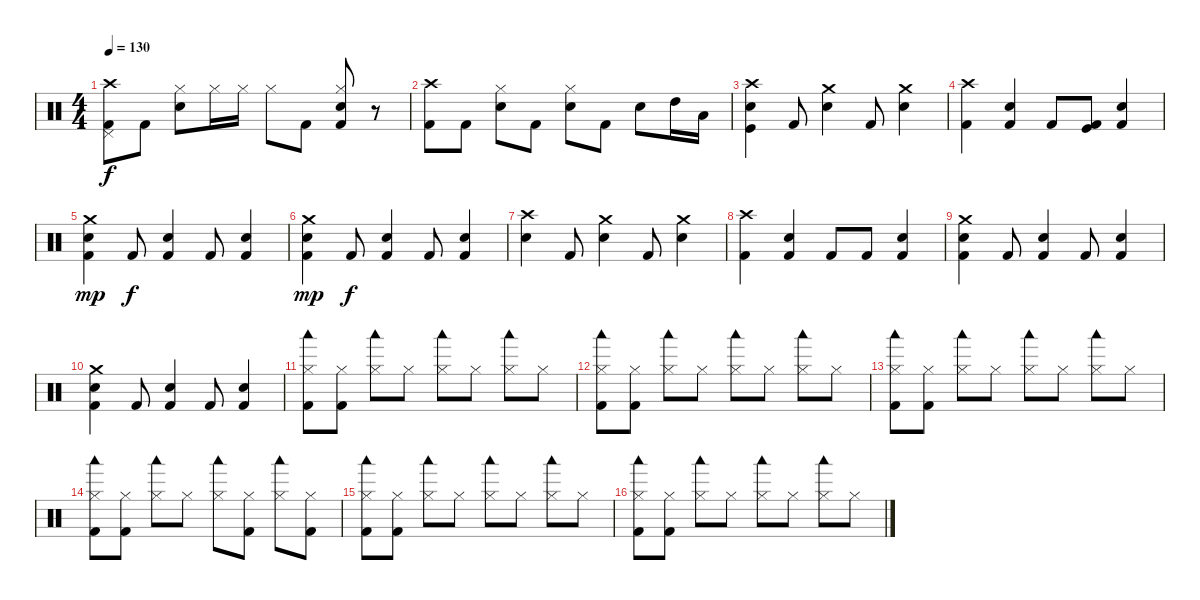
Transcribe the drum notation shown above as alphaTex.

\track "" {instrument percussion}
\staff {score}
\articulation defaults
\ts (4 4)
\tempo 130
\clef neutral
\ks c
("Crash high (hit)" "Pedal Hi-Hat (hit)" "Kick (hit) 2").8{dy f} "Kick (hit) 2".8 ("Hi-Hat (closed)" "Electric Snare (hit)").8 "Hi-Hat (closed)".16 "Hi-Hat (closed)".16 "Hi-Hat (closed)".8 "Kick (hit) 2".8 ("Hi-Hat (closed)" "Electric Snare (hit)" "Kick (hit) 2").8 r.8 |
("Crash high (hit)" "Kick (hit) 2").8 "Kick (hit) 2".8 ("Hi-Hat (closed)" "Electric Snare (hit)").8 "Kick (hit) 2".8 ("Hi-Hat (closed)" "Electric Snare (hit)").8 "Kick (hit) 2".8 "Electric Snare (hit)".8 "High Tom (hit)".16 "Low Tom (hit)".16 |
("Crash high (hit)" "Kick (hit)" "Electric Snare (hit)").4 "Kick (hit) 2".8 ("Crash medium (hit)" "Electric Snare (hit)").4 "Kick (hit) 2".8 ("Crash medium (hit)" "Electric Snare (hit)").4 |
("Crash high (hit)" "Kick (hit) 2").4 ("Kick (hit) 2" "Electric Snare (hit)").4 "Kick (hit) 2".8 ("Kick (hit)" "Kick (hit) 2").8 ("Kick (hit) 2" "Electric Snare (hit)").4 |
("Crash medium (hit)" "Kick (hit) 2" "Electric Snare (hit)").4{dy mp} "Kick (hit) 2".8{dy f} ("Kick (hit) 2" "Electric Snare (hit)").4 "Kick (hit) 2".8 ("Kick (hit) 2" "Electric Snare (hit)").4 |
("Crash medium (hit)" "Kick (hit) 2" "Electric Snare (hit)").4{dy mp} "Kick (hit) 2".8{dy f} ("Kick (hit) 2" "Electric Snare (hit)").4 "Kick (hit) 2".8 ("Kick (hit) 2" "Electric Snare (hit)").4 |
("Crash high (hit)" "Electric Snare (hit)").4 "Kick (hit) 2".8 ("Crash medium (hit)" "Electric Snare (hit)").4 "Kick (hit) 2".8 ("Crash medium (hit)" "Electric Snare (hit)").4 |
("Crash high (hit)" "Kick (hit) 2").4 ("Kick (hit) 2" "Electric Snare (hit)").4 "Kick (hit) 2".8 "Kick (hit) 2".8 ("Kick (hit) 2" "Electric Snare (hit)").4 |
("Kick (hit) 2" "Electric Snare (hit)" "Crash medium (hit)").4 "Kick (hit) 2".8 ("Kick (hit) 2" "Electric Snare (hit)").4 "Kick (hit) 2".8 ("Kick (hit) 2" "Electric Snare (hit)").4 |
("Crash medium (hit)" "Kick (hit) 2" "Electric Snare (hit)").4 "Kick (hit) 2".8 ("Kick (hit) 2" "Electric Snare (hit)").4 "Kick (hit) 2".8 ("Kick (hit) 2" "Electric Snare (hit)").4 |
("Woodblock low (hit)" "Hi-Hat (closed)" "Kick (hit) 2").8 ("Hi-Hat (closed)" "Kick (hit) 2").8 ("Woodblock low (hit)" "Hi-Hat (closed)").8 "Hi-Hat (closed)".8 ("Woodblock low (hit)" "Hi-Hat (closed)").8 "Hi-Hat (closed)".8 ("Woodblock low (hit)" "Hi-Hat (closed)").8 "Hi-Hat (closed)".8 |
("Woodblock low (hit)" "Hi-Hat (closed)" "Kick (hit) 2").8 ("Hi-Hat (closed)" "Kick (hit) 2").8 ("Woodblock low (hit)" "Hi-Hat (closed)").8 "Hi-Hat (closed)".8 ("Woodblock low (hit)" "Hi-Hat (closed)").8 "Hi-Hat (closed)".8 ("Woodblock low (hit)" "Hi-Hat (closed)").8 "Hi-Hat (closed)".8 |
("Woodblock low (hit)" "Hi-Hat (closed)" "Kick (hit) 2").8 ("Hi-Hat (closed)" "Kick (hit) 2").8 ("Woodblock low (hit)" "Hi-Hat (closed)").8 "Hi-Hat (closed)".8 ("Woodblock low (hit)" "Hi-Hat (closed)").8 "Hi-Hat (closed)".8 ("Woodblock low (hit)" "Hi-Hat (closed)").8 "Hi-Hat (closed)".8 |
("Woodblock low (hit)" "Hi-Hat (closed)" "Kick (hit) 2").8 ("Hi-Hat (closed)" "Kick (hit) 2").8 ("Woodblock low (hit)" "Hi-Hat (closed)").8 "Hi-Hat (closed)".8 ("Woodblock low (hit)" "Hi-Hat (closed)").8 ("Hi-Hat (closed)" "Kick (hit) 2").8 ("Woodblock low (hit)" "Hi-Hat (closed)").8 ("Hi-Hat (closed)" "Kick (hit) 2").8 |
("Woodblock low (hit)" "Hi-Hat (closed)" "Kick (hit) 2").8 ("Hi-Hat (closed)" "Kick (hit) 2").8 ("Woodblock low (hit)" "Hi-Hat (closed)").8 "Hi-Hat (closed)".8 ("Woodblock low (hit)" "Hi-Hat (closed)").8 "Hi-Hat (closed)".8 ("Woodblock low (hit)" "Hi-Hat (closed)").8 "Hi-Hat (closed)".8 |
("Woodblock low (hit)" "Hi-Hat (closed)" "Kick (hit) 2").8 ("Hi-Hat (closed)" "Kick (hit) 2").8 ("Woodblock low (hit)" "Hi-Hat (closed)").8 "Hi-Hat (closed)".8 ("Woodblock low (hit)" "Hi-Hat (closed)").8 "Hi-Hat (closed)".8 ("Woodblock low (hit)" "Hi-Hat (closed)").8 "Hi-Hat (closed)".8
